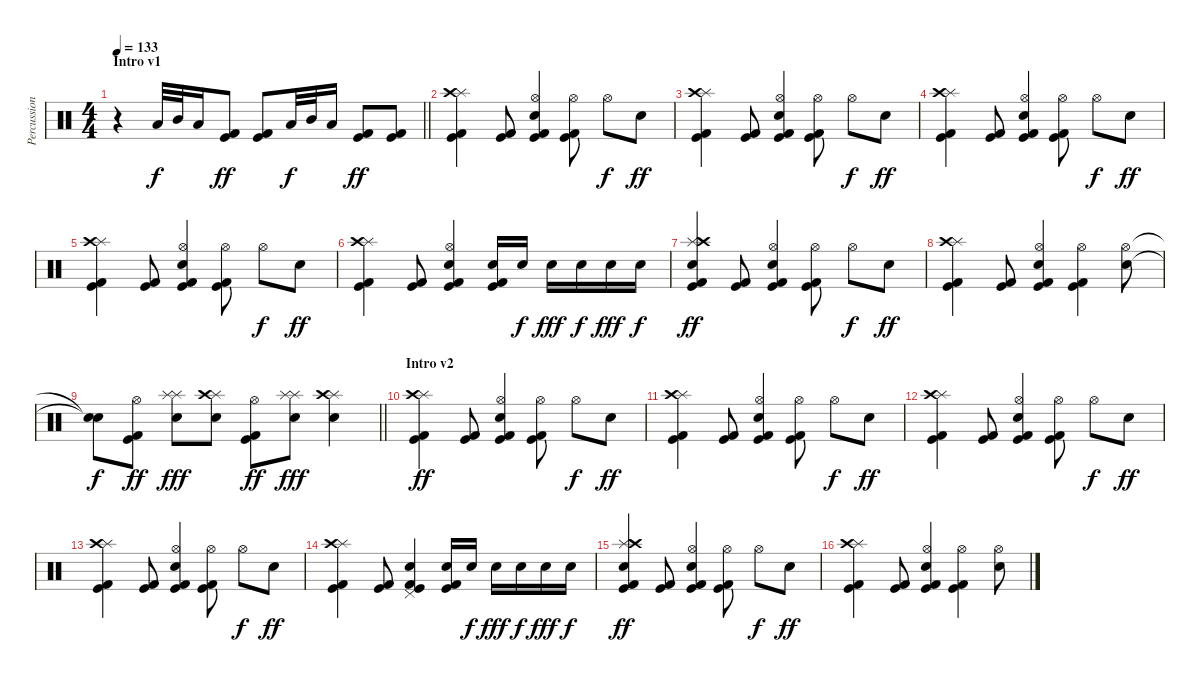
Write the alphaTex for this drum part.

\track ("Percussion" "Percussion") {instrument percussion}
\staff {score}
\articulation defaults
\ts (4 4)
\section ("" "Intro v1")
\tempo 133
\clef neutral
\barLineRight lightlight
\ks c
r.4{dy f} "Low Tom (hit)".32{balance 4} "Mid Tom (hit)".32{balance 12} "Low Tom (hit)".16{balance 4} ("Kick (hit) 2" "Kick (hit)").8{dy ff balance 8} ("Kick (hit) 2" "Kick (hit)").8 "Low Tom (hit)".32{dy f balance 4} "Mid Tom (hit)".32{balance 12} "Low Tom (hit)".16{balance 4} ("Kick (hit) 2" "Kick (hit)").8{dy ff balance 8} ("Kick (hit) 2" "Kick (hit)").8 |
("Splash (hit)" "Crash high (hit)" "Kick (hit) 2" "Kick (hit)").4 ("Kick (hit) 2" "Kick (hit)").8 ("Hi-Hat (open)" "Snare (hit) 2" "Kick (hit) 2" "Kick (hit)").4 ("Hi-Hat (open)" "Kick (hit)" "Kick (hit) 2").8 "Hi-Hat (open)".8{dy f} "Snare (hit) 2".8{dy ff} |
("Splash (hit)" "Crash high (hit)" "Kick (hit) 2" "Kick (hit)").4 ("Kick (hit) 2" "Kick (hit)").8 ("Hi-Hat (open)" "Snare (hit) 2" "Kick (hit) 2" "Kick (hit)").4 ("Hi-Hat (open)" "Kick (hit) 2" "Kick (hit)").8 "Hi-Hat (open)".8{dy f} "Snare (hit) 2".8{dy ff} |
("Splash (hit)" "Crash high (hit)" "Kick (hit) 2" "Kick (hit)").4 ("Kick (hit) 2" "Kick (hit)").8 ("Hi-Hat (open)" "Snare (hit) 2" "Kick (hit) 2" "Kick (hit)").4 ("Hi-Hat (open)" "Kick (hit)" "Kick (hit) 2").8 "Hi-Hat (open)".8{dy f} "Snare (hit) 2".8{dy ff} |
("Splash (hit)" "Crash high (hit)" "Kick (hit) 2" "Kick (hit)").4 ("Kick (hit) 2" "Kick (hit)").8 ("Hi-Hat (open)" "Snare (hit) 2" "Kick (hit) 2" "Kick (hit)").4 ("Hi-Hat (open)" "Kick (hit) 2" "Kick (hit)").8 "Hi-Hat (open)".8{dy f} "Snare (hit) 2".8{dy ff} |
("Splash (hit)" "Crash high (hit)" "Kick (hit) 2" "Kick (hit)").4 ("Kick (hit) 2" "Kick (hit)").8 ("Hi-Hat (open)" "Snare (hit) 2" "Kick (hit) 2" "Kick (hit)").4 ("Snare (hit) 2" "Kick (hit) 2" "Kick (hit)").16 "Snare (hit) 2".16{dy f} "Snare (hit) 2".16{dy fff} "Snare (hit) 2".16{dy f} "Snare (hit) 2".16{dy fff} "Snare (hit) 2".16{dy f} |
("Splash (hit)" "Crash high (hit)" "Snare (hit) 2" "Kick (hit) 2" "Kick (hit)").4{dy ff} ("Kick (hit) 2" "Kick (hit)").8 ("Hi-Hat (open)" "Snare (hit) 2" "Kick (hit) 2" "Kick (hit)").4 ("Hi-Hat (open)" "Kick (hit)" "Kick (hit) 2").8 "Hi-Hat (open)".8{dy f} "Snare (hit) 2".8{dy ff} |
("Splash (hit)" "Crash high (hit)" "Kick (hit) 2" "Kick (hit)").4 ("Kick (hit) 2" "Kick (hit)").8 ("Hi-Hat (open)" "Snare (hit) 2" "Kick (hit) 2" "Kick (hit)").4 ("Hi-Hat (open)" "Kick (hit)" "Kick (hit) 2").4 ("Hi-Hat (open)" "Snare (hit) 2").8 |
\barLineRight lightlight
("Snare (hit)"{t} "Snare (hit)"{t}).8{dy f} ("Hi-Hat (open)" "Kick (hit)" "Kick (hit) 2").8{dy ff} ("Splash (hit)" "Splash (hit)" "Snare (hit) 2").8{dy fff} ("Splash (hit)" "Crash high (hit)" "Snare (hit) 2").8 ("Hi-Hat (open)" "Kick (hit)" "Kick (hit) 2").8{dy ff} ("Splash (hit)" "Splash (hit)" "Snare (hit) 2").8{dy fff} ("Splash (hit)" "Crash high (hit)" "Snare (hit) 2").4 |
\section ("" "Intro v2")
("Splash (hit)" "Crash high (hit)" "Kick (hit) 2" "Kick (hit)").4{dy ff} ("Kick (hit) 2" "Kick (hit)").8 ("Hi-Hat (open)" "Snare (hit) 2" "Kick (hit) 2" "Kick (hit)").4 ("Hi-Hat (open)" "Kick (hit)" "Kick (hit) 2").8 "Hi-Hat (open)".8{dy f} "Snare (hit) 2".8{dy ff} |
("Splash (hit)" "Crash high (hit)" "Kick (hit) 2" "Kick (hit)").4 ("Kick (hit) 2" "Kick (hit)").8 ("Hi-Hat (open)" "Snare (hit) 2" "Kick (hit) 2" "Kick (hit)").4 ("Hi-Hat (open)" "Kick (hit) 2" "Kick (hit)").8 "Hi-Hat (open)".8{dy f} "Snare (hit) 2".8{dy ff} |
("Splash (hit)" "Crash high (hit)" "Kick (hit) 2" "Kick (hit)").4 ("Kick (hit) 2" "Kick (hit)").8 ("Hi-Hat (open)" "Snare (hit) 2" "Kick (hit) 2" "Kick (hit)").4 ("Hi-Hat (open)" "Kick (hit)" "Kick (hit) 2").8 "Hi-Hat (open)".8{dy f} "Snare (hit) 2".8{dy ff} |
("Splash (hit)" "Crash high (hit)" "Kick (hit) 2" "Kick (hit)").4 ("Kick (hit) 2" "Kick (hit)").8 ("Hi-Hat (open)" "Snare (hit) 2" "Kick (hit) 2" "Kick (hit)").4 ("Hi-Hat (open)" "Kick (hit) 2" "Kick (hit)").8 "Hi-Hat (open)".8{dy f} "Snare (hit) 2".8{dy ff} |
("Splash (hit)" "Crash high (hit)" "Kick (hit) 2" "Kick (hit)").4 ("Kick (hit) 2" "Kick (hit)").8 ("Pedal Hi-Hat (hit)" "Snare (hit) 2" "Kick (hit) 2" "Kick (hit)").4 ("Snare (hit) 2" "Kick (hit) 2" "Kick (hit)").16 "Snare (hit) 2".16{dy f} "Snare (hit) 2".16{dy fff} "Snare (hit) 2".16{dy f} "Snare (hit) 2".16{dy fff} "Snare (hit) 2".16{dy f} |
("Splash (hit)" "Crash high (hit)" "Snare (hit) 2" "Kick (hit) 2" "Kick (hit)").4{dy ff} ("Kick (hit) 2" "Kick (hit)").8 ("Hi-Hat (open)" "Snare (hit) 2" "Kick (hit) 2" "Kick (hit)").4 ("Hi-Hat (open)" "Kick (hit)" "Kick (hit) 2").8 "Hi-Hat (open)".8{dy f} "Snare (hit) 2".8{dy ff} |
("Splash (hit)" "Crash high (hit)" "Kick (hit) 2" "Kick (hit)").4 ("Kick (hit) 2" "Kick (hit)").8 ("Hi-Hat (open)" "Snare (hit) 2" "Kick (hit) 2" "Kick (hit)").4 ("Hi-Hat (open)" "Kick (hit)" "Kick (hit) 2").4 ("Hi-Hat (open)" "Snare (hit) 2").8
